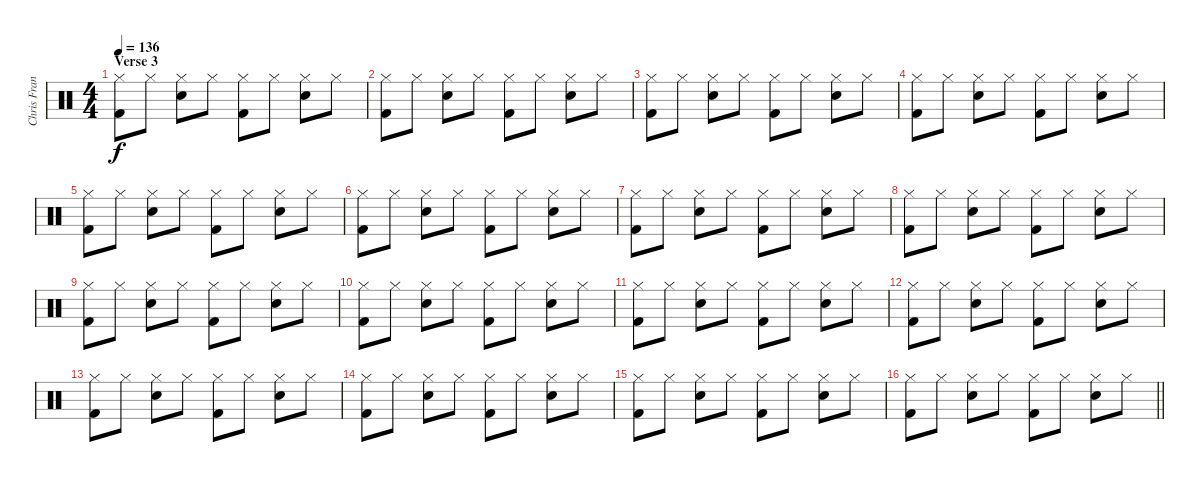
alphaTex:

\track ("Chris Frantz" "Chris Fran") {instrument percussion}
\staff {score}
\articulation defaults
\ts (4 4)
\section ("" "Verse 3")
\tempo 136
\clef neutral
\ks c
("Hi-Hat (closed)" "Kick (hit) 2").8{dy f} "Hi-Hat (closed)".8 ("Hi-Hat (closed)" "Electric Snare (hit)").8 "Hi-Hat (closed)".8 ("Hi-Hat (closed)" "Kick (hit) 2").8 "Hi-Hat (closed)".8 ("Hi-Hat (closed)" "Electric Snare (hit)").8 "Hi-Hat (closed)".8 |
("Hi-Hat (closed)" "Kick (hit) 2").8 "Hi-Hat (closed)".8 ("Hi-Hat (closed)" "Electric Snare (hit)").8 "Hi-Hat (closed)".8 ("Hi-Hat (closed)" "Kick (hit) 2").8 "Hi-Hat (closed)".8 ("Hi-Hat (closed)" "Electric Snare (hit)").8 "Hi-Hat (closed)".8 |
("Hi-Hat (closed)" "Kick (hit) 2").8 "Hi-Hat (closed)".8 ("Hi-Hat (closed)" "Electric Snare (hit)").8 "Hi-Hat (closed)".8 ("Hi-Hat (closed)" "Kick (hit) 2").8 "Hi-Hat (closed)".8 ("Hi-Hat (closed)" "Electric Snare (hit)").8 "Hi-Hat (closed)".8 |
("Hi-Hat (closed)" "Kick (hit) 2").8 "Hi-Hat (closed)".8 ("Hi-Hat (closed)" "Electric Snare (hit)").8 "Hi-Hat (closed)".8 ("Hi-Hat (closed)" "Kick (hit) 2").8 "Hi-Hat (closed)".8 ("Hi-Hat (closed)" "Electric Snare (hit)").8 "Hi-Hat (closed)".8 |
("Hi-Hat (closed)" "Kick (hit) 2").8 "Hi-Hat (closed)".8 ("Hi-Hat (closed)" "Electric Snare (hit)").8 "Hi-Hat (closed)".8 ("Hi-Hat (closed)" "Kick (hit) 2").8 "Hi-Hat (closed)".8 ("Hi-Hat (closed)" "Electric Snare (hit)").8 "Hi-Hat (closed)".8 |
("Hi-Hat (closed)" "Kick (hit) 2").8 "Hi-Hat (closed)".8 ("Hi-Hat (closed)" "Electric Snare (hit)").8 "Hi-Hat (closed)".8 ("Hi-Hat (closed)" "Kick (hit) 2").8 "Hi-Hat (closed)".8 ("Hi-Hat (closed)" "Electric Snare (hit)").8 "Hi-Hat (closed)".8 |
("Hi-Hat (closed)" "Kick (hit) 2").8 "Hi-Hat (closed)".8 ("Hi-Hat (closed)" "Electric Snare (hit)").8 "Hi-Hat (closed)".8 ("Hi-Hat (closed)" "Kick (hit) 2").8 "Hi-Hat (closed)".8 ("Hi-Hat (closed)" "Electric Snare (hit)").8 "Hi-Hat (closed)".8 |
("Hi-Hat (closed)" "Kick (hit) 2").8 "Hi-Hat (closed)".8 ("Hi-Hat (closed)" "Electric Snare (hit)").8 "Hi-Hat (closed)".8 ("Hi-Hat (closed)" "Kick (hit) 2").8 "Hi-Hat (closed)".8 ("Hi-Hat (closed)" "Electric Snare (hit)").8 "Hi-Hat (closed)".8 |
("Hi-Hat (closed)" "Kick (hit) 2").8 "Hi-Hat (closed)".8 ("Hi-Hat (closed)" "Electric Snare (hit)").8 "Hi-Hat (closed)".8 ("Hi-Hat (closed)" "Kick (hit) 2").8 "Hi-Hat (closed)".8 ("Hi-Hat (closed)" "Electric Snare (hit)").8 "Hi-Hat (closed)".8 |
("Hi-Hat (closed)" "Kick (hit) 2").8 "Hi-Hat (closed)".8 ("Hi-Hat (closed)" "Electric Snare (hit)").8 "Hi-Hat (closed)".8 ("Hi-Hat (closed)" "Kick (hit) 2").8 "Hi-Hat (closed)".8 ("Hi-Hat (closed)" "Electric Snare (hit)").8 "Hi-Hat (closed)".8 |
("Hi-Hat (closed)" "Kick (hit) 2").8 "Hi-Hat (closed)".8 ("Hi-Hat (closed)" "Electric Snare (hit)").8 "Hi-Hat (closed)".8 ("Hi-Hat (closed)" "Kick (hit) 2").8 "Hi-Hat (closed)".8 ("Hi-Hat (closed)" "Electric Snare (hit)").8 "Hi-Hat (closed)".8 |
("Hi-Hat (closed)" "Kick (hit) 2").8 "Hi-Hat (closed)".8 ("Hi-Hat (closed)" "Electric Snare (hit)").8 "Hi-Hat (closed)".8 ("Hi-Hat (closed)" "Kick (hit) 2").8 "Hi-Hat (closed)".8 ("Hi-Hat (closed)" "Electric Snare (hit)").8 "Hi-Hat (closed)".8 |
("Hi-Hat (closed)" "Kick (hit) 2").8 "Hi-Hat (closed)".8 ("Hi-Hat (closed)" "Electric Snare (hit)").8 "Hi-Hat (closed)".8 ("Hi-Hat (closed)" "Kick (hit) 2").8 "Hi-Hat (closed)".8 ("Hi-Hat (closed)" "Electric Snare (hit)").8 "Hi-Hat (closed)".8 |
("Hi-Hat (closed)" "Kick (hit) 2").8 "Hi-Hat (closed)".8 ("Hi-Hat (closed)" "Electric Snare (hit)").8 "Hi-Hat (closed)".8 ("Hi-Hat (closed)" "Kick (hit) 2").8 "Hi-Hat (closed)".8 ("Hi-Hat (closed)" "Electric Snare (hit)").8 "Hi-Hat (closed)".8 |
("Hi-Hat (closed)" "Kick (hit) 2").8 "Hi-Hat (closed)".8 ("Hi-Hat (closed)" "Electric Snare (hit)").8 "Hi-Hat (closed)".8 ("Hi-Hat (closed)" "Kick (hit) 2").8 "Hi-Hat (closed)".8 ("Hi-Hat (closed)" "Electric Snare (hit)").8 "Hi-Hat (closed)".8 |
\barLineRight lightlight
("Hi-Hat (closed)" "Kick (hit) 2").8 "Hi-Hat (closed)".8 ("Hi-Hat (closed)" "Electric Snare (hit)").8 "Hi-Hat (closed)".8 ("Hi-Hat (closed)" "Kick (hit) 2").8 "Hi-Hat (closed)".8 ("Hi-Hat (closed)" "Electric Snare (hit)").8 "Hi-Hat (closed)".8
